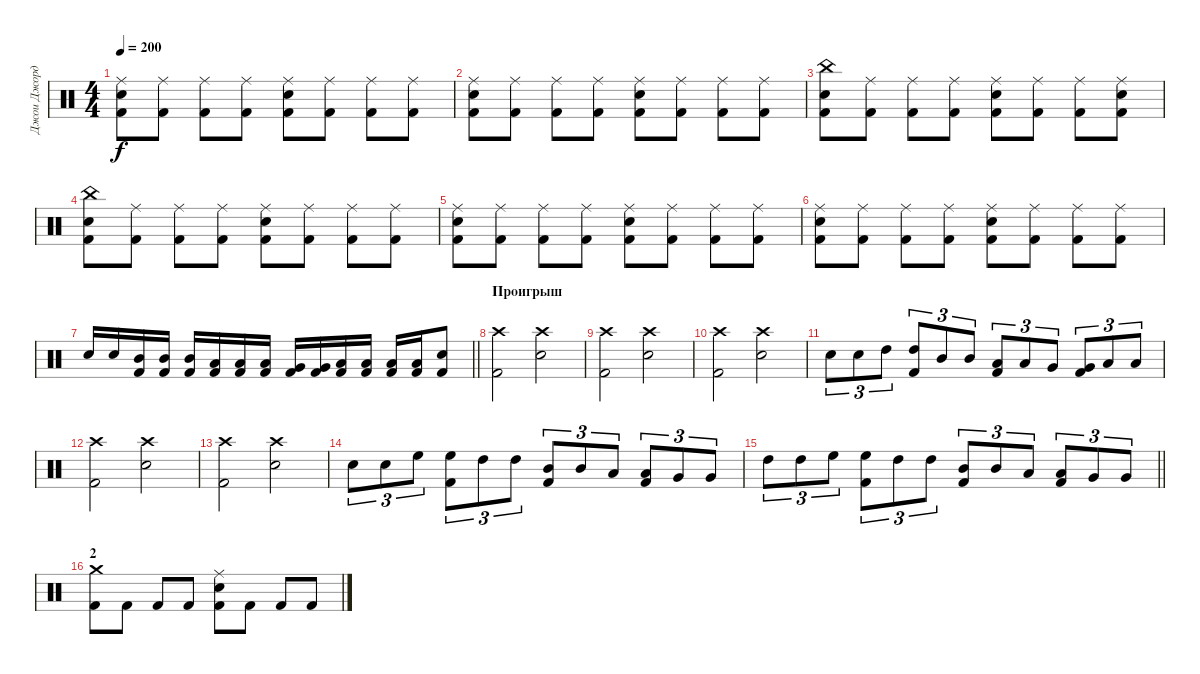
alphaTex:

\track ("Джои Джордисон" "Джои Джорд") {instrument percussion}
\staff {score}
\articulation defaults
\ts (4 4)
\tempo 200
\clef neutral
\ks c
("Ride (middle)" "Electric Snare (hit)" "Kick (hit) 2").8{dy f} ("Ride (middle)" "Kick (hit) 2").8 ("Ride (middle)" "Kick (hit) 2").8 ("Ride (middle)" "Kick (hit) 2").8 ("Ride (middle)" "Electric Snare (hit)" "Kick (hit) 2").8 ("Ride (middle)" "Kick (hit) 2").8 ("Ride (middle)" "Kick (hit) 2").8 ("Ride (middle)" "Kick (hit) 2").8 |
("Ride (middle)" "Electric Snare (hit)" "Kick (hit) 2").8 ("Ride (middle)" "Kick (hit) 2").8 ("Ride (middle)" "Kick (hit) 2").8 ("Ride (middle)" "Kick (hit) 2").8 ("Ride (middle)" "Electric Snare (hit)" "Kick (hit) 2").8 ("Ride (middle)" "Kick (hit) 2").8 ("Ride (middle)" "Kick (hit) 2").8 ("Ride (middle)" "Kick (hit) 2").8 |
("China (hit)" "Electric Snare (hit)" "Kick (hit) 2").8 ("Ride (middle)" "Kick (hit) 2").8 ("Ride (middle)" "Kick (hit) 2").8 ("Ride (middle)" "Kick (hit) 2").8 ("Ride (middle)" "Electric Snare (hit)" "Kick (hit) 2").8 ("Ride (middle)" "Kick (hit) 2").8 ("Ride (middle)" "Kick (hit) 2").8 ("Ride (middle)" "Electric Snare (hit)" "Kick (hit) 2").8 |
("China (hit)" "Electric Snare (hit)" "Kick (hit) 2").8 ("Ride (middle)" "Kick (hit) 2").8 ("Ride (middle)" "Kick (hit) 2").8 ("Ride (middle)" "Kick (hit) 2").8 ("Ride (middle)" "Electric Snare (hit)" "Kick (hit) 2").8 ("Ride (middle)" "Kick (hit) 2").8 ("Ride (middle)" "Kick (hit) 2").8 ("Ride (middle)" "Kick (hit) 2").8 |
("Ride (middle)" "Electric Snare (hit)" "Kick (hit) 2").8 ("Ride (middle)" "Kick (hit) 2").8 ("Ride (middle)" "Kick (hit) 2").8 ("Ride (middle)" "Kick (hit) 2").8 ("Ride (middle)" "Electric Snare (hit)" "Kick (hit) 2").8 ("Ride (middle)" "Kick (hit) 2").8 ("Ride (middle)" "Kick (hit) 2").8 ("Ride (middle)" "Kick (hit) 2").8 |
("Ride (middle)" "Electric Snare (hit)" "Kick (hit) 2").8 ("Ride (middle)" "Kick (hit) 2").8 ("Ride (middle)" "Kick (hit) 2").8 ("Ride (middle)" "Kick (hit) 2").8 ("Ride (middle)" "Electric Snare (hit)" "Kick (hit) 2").8 ("Ride (middle)" "Kick (hit) 2").8 ("Ride (middle)" "Kick (hit) 2").8 ("Ride (middle)" "Kick (hit) 2").8 |
\barLineRight lightlight "Electric Snare (hit)".16 "Electric Snare (hit)".16
("Mid Tom (hit)" "Kick (hit) 2").16 ("Mid Tom (hit)" "Kick (hit) 2").16 ("Mid Tom (hit)" "Kick (hit) 2").16 ("Low Tom (hit)" "Kick (hit) 2").16 ("Low Tom (hit)" "Kick (hit) 2").16 ("Low Tom (hit)" "Kick (hit) 2").16 ("Very Low Tom (hit)" "Kick (hit) 2").16 ("Very Low Tom (hit)" "Kick (hit) 2").16 ("Low Floor Tom (hit)" "Kick (hit) 2").16 ("Low Floor Tom (hit)" "Kick (hit) 2").16 ("Low Floor Tom (hit)" "Kick (hit) 2").16 ("Low Floor Tom (hit)" "Kick (hit) 2").16 ("Electric Snare (hit)" "Kick (hit) 2").8 |
\section ("" "Проигрыш")
("Crash high (hit)" "Kick (hit) 2").2 ("Crash high (hit)" "Electric Snare (hit)").2 |
("Crash high (hit)" "Kick (hit) 2").2 ("Crash high (hit)" "Electric Snare (hit)").2 |
("Crash high (hit)" "Kick (hit) 2").2 ("Crash high (hit)" "Electric Snare (hit)").2 |
"Electric Snare (hit)".8{tu (3 2)} "Electric Snare (hit)".8{tu (3 2)} "High Tom (hit)".8{tu (3 2)} ("High Tom (hit)" "Kick (hit) 2").8{tu (3 2)} "Mid Tom (hit)".8{tu (3 2)} "Mid Tom (hit)".8{tu (3 2)} ("Low Tom (hit)" "Kick (hit) 2").8{tu (3 2)} "Low Tom (hit)".8{tu (3 2)} "Very Low Tom (hit)".8{tu (3 2)} ("Very Low Tom (hit)" "Kick (hit) 2").8{tu (3 2)} "Low Floor Tom (hit)".8{tu (3 2)} "Low Floor Tom (hit)".8{tu (3 2)} |
("Crash high (hit)" "Kick (hit) 2").2 ("Crash high (hit)" "Electric Snare (hit)").2 |
("Crash high (hit)" "Kick (hit) 2").2 ("Crash high (hit)" "Electric Snare (hit)").2 |
"Electric Snare (hit)".8{tu (3 2)} "Electric Snare (hit)".8{tu (3 2)} "High Floor Tom (hit)".8{tu (3 2)} ("High Floor Tom (hit)" "Kick (hit) 2").8{tu (3 2)} "High Tom (hit)".8{tu (3 2)} "High Tom (hit)".8{tu (3 2)} ("Mid Tom (hit)" "Kick (hit) 2").8{tu (3 2)} "Mid Tom (hit)".8{tu (3 2)} "Low Tom (hit)".8{tu (3 2)} ("Low Tom (hit)" "Kick (hit) 2").8{tu (3 2)} "Very Low Tom (hit)".8{tu (3 2)} "Very Low Tom (hit)".8{tu (3 2)} |
\barLineRight lightlight "High Tom (hit)".8{tu (3 2)} "High Tom (hit)".8{tu (3 2)} "High Floor Tom (hit)".8{tu (3 2)}
("High Floor Tom (hit)" "Kick (hit) 2").8{tu (3 2)} "High Tom (hit)".8{tu (3 2)} "High Tom (hit)".8{tu (3 2)} ("Mid Tom (hit)" "Kick (hit) 2").8{tu (3 2)} "Mid Tom (hit)".8{tu (3 2)} "Low Tom (hit)".8{tu (3 2)} ("Low Tom (hit)" "Kick (hit) 2").8{tu (3 2)} "Very Low Tom (hit)".8{tu (3 2)} "Very Low Tom (hit)".8{tu (3 2)} |
\section ("" "2")
("Crash medium (hit)" "Kick (hit) 2").8 "Kick (hit) 2".8 "Kick (hit) 2".8 "Kick (hit) 2".8 ("Ride (middle)" "Electric Snare (hit)" "Kick (hit) 2").8 "Kick (hit) 2".8 "Kick (hit) 2".8 "Kick (hit) 2".8
